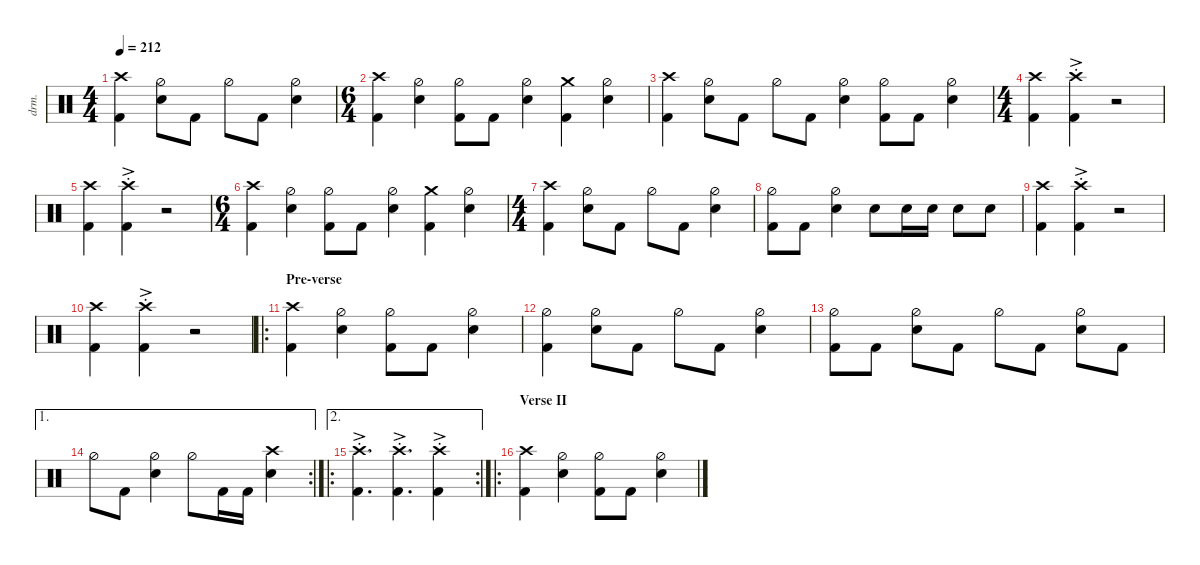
\defaultSystemsLayout 4
\hideDynamics
\bracketExtendMode nobrackets
\track ("Drums" "drm.") {instrument percussion}
\staff {score}
\articulation defaults
\ts (4 4)
\beaming (8 2 2 2 2)
\tempo 212
\clef neutral
\ks c
("Crash high (hit)" "Kick (hit) 2").4{dy f} ("Hi-Hat (half)" "Snare (hit) 2").8 "Kick (hit) 2".8 "Hi-Hat (half)".8 "Kick (hit) 2".8 ("Hi-Hat (half)" "Snare (hit) 2").4 |
\ts (6 4)
\beaming (8 2 2 2 6)
("Crash high (hit)" "Kick (hit) 2").4 ("Hi-Hat (half)" "Snare (hit) 2").4 ("Hi-Hat (half)" "Kick (hit) 2").8 "Kick (hit) 2".8 ("Hi-Hat (half)" "Snare (hit) 2").4 ("Kick (hit) 2" "Crash medium (hit)").4 ("Hi-Hat (half)" "Snare (hit) 2").4 |
("Crash high (hit)" "Kick (hit) 2").4 ("Hi-Hat (half)" "Snare (hit) 2").8 "Kick (hit) 2".8 "Hi-Hat (half)".8 "Kick (hit) 2".8 ("Hi-Hat (half)" "Snare (hit) 2").4 ("Hi-Hat (half)" "Kick (hit) 2").8 "Kick (hit) 2".8 ("Hi-Hat (half)" "Snare (hit) 2").4 |
\ts (4 4)
\beaming (8 2 2 2 2)
("Kick (hit) 2" "Crash high (hit)").4{dy ff} ("Kick (hit) 2" "Crash high (hit)"{ac st}).4 r.2 |
("Kick (hit) 2" "Crash high (hit)").4 ("Kick (hit) 2" "Crash high (hit)"{ac st}).4 r.2 |
\ts (6 4)
\beaming (8 2 2 2 6)
("Crash high (hit)" "Kick (hit) 2").4{dy f} ("Hi-Hat (half)" "Snare (hit) 2").4 ("Hi-Hat (half)" "Kick (hit) 2").8 "Kick (hit) 2".8 ("Hi-Hat (half)" "Snare (hit) 2").4 ("Kick (hit) 2" "Crash medium (hit)").4 ("Hi-Hat (half)" "Snare (hit) 2").4 |
\ts (4 4)
\beaming (8 2 2 2 2)
("Crash high (hit)" "Kick (hit) 2").4 ("Hi-Hat (half)" "Snare (hit) 2").8 "Kick (hit) 2".8 "Hi-Hat (half)".8 "Kick (hit) 2".8 ("Hi-Hat (half)" "Snare (hit) 2").4 |
("Hi-Hat (half)" "Kick (hit) 2").8 "Kick (hit) 2".8 ("Hi-Hat (half)" "Snare (hit) 2").4 "Snare (hit) 2".8 "Snare (hit) 2".16{dy mp} "Snare (hit) 2".16 "Snare (hit) 2".8{dy f} "Snare (hit) 2".8 |
("Kick (hit) 2" "Crash high (hit)").4{dy ff} ("Kick (hit) 2" "Crash high (hit)"{ac st}).4 r.2 |
("Kick (hit) 2" "Crash high (hit)").4 ("Kick (hit) 2" "Crash high (hit)"{ac st}).4 r.2 |
\ro
\section ("" "Pre-verse")
("Crash high (hit)" "Kick (hit) 2").4{dy f} ("Hi-Hat (half)" "Snare (hit) 2").4 ("Hi-Hat (half)" "Kick (hit) 2").8 "Kick (hit) 2".8 ("Hi-Hat (half)" "Snare (hit) 2").4 |
("Kick (hit) 2" "Hi-Hat (half)").4 ("Hi-Hat (half)" "Snare (hit) 2").8 "Kick (hit) 2".8 "Hi-Hat (half)".8 "Kick (hit) 2".8 ("Hi-Hat (half)" "Snare (hit) 2").4 |
("Hi-Hat (half)" "Kick (hit) 2").8 "Kick (hit) 2".8 ("Hi-Hat (half)" "Snare (hit) 2").8 "Kick (hit) 2".8 "Hi-Hat (half)".8 "Kick (hit) 2".8 ("Hi-Hat (half)" "Snare (hit) 2").8 "Kick (hit) 2".8 |
\ae 1
\rc 2 "Hi-Hat (half)".8 "Kick (hit) 2".8
("Hi-Hat (half)" "Snare (hit) 2").4 "Hi-Hat (half)".8 "Kick (hit) 2".16 "Kick (hit) 2".16 ("Snare (hit) 2" "Crash high (hit)").4 |
\ae 2
\ro
\rc 2
("Kick (hit) 2" "Crash high (hit)"{ac st}).4{d dy ff} ("Kick (hit) 2" "Crash high (hit)"{ac st}).4{d} ("Kick (hit) 2" "Crash high (hit)"{ac st}).4 |
\ro
\section ("" "Verse II")
("Crash high (hit)" "Kick (hit) 2").4{dy f} ("Hi-Hat (half)" "Snare (hit) 2").4 ("Hi-Hat (half)" "Kick (hit) 2").8 "Kick (hit) 2".8 ("Hi-Hat (half)" "Snare (hit) 2").4
